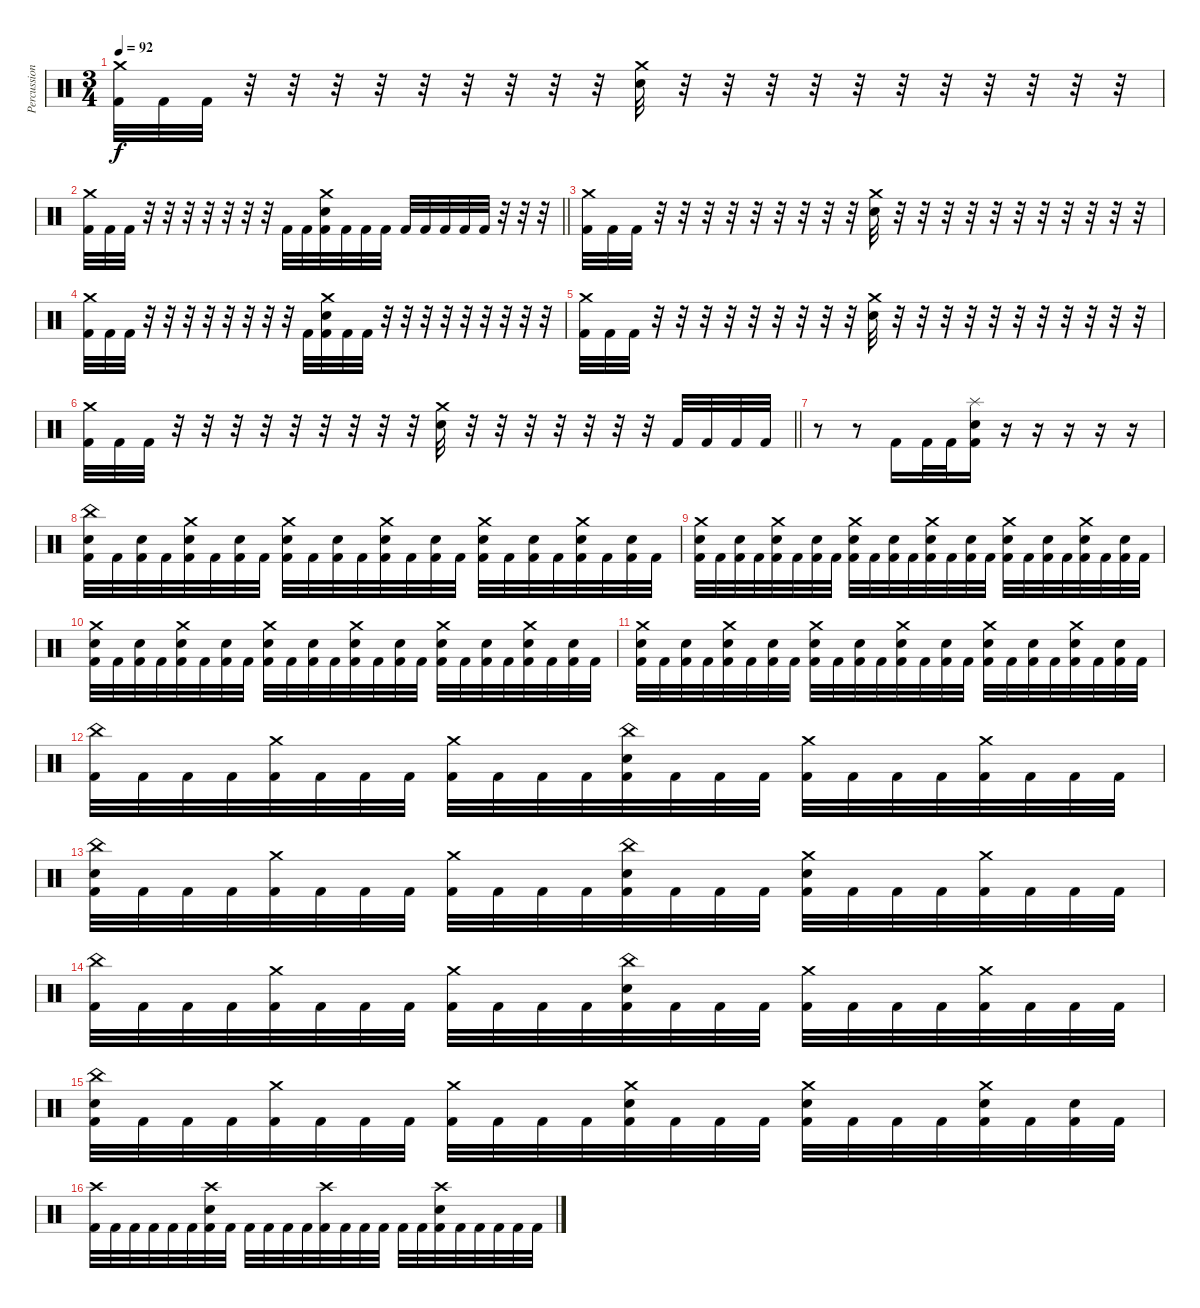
\track ("Percussion [Optional]" "Percussion") {instrument percussion}
\staff {score}
\articulation defaults
\ts (3 4)
\tempo 92
\clef neutral
\ks c
("Crash medium (hit)" "Kick (hit) 2").32{dy f} "Kick (hit) 2".32 "Kick (hit) 2".32 r.32 r.32 r.32 r.32 r.32 r.32 r.32 r.32 r.32 ("Crash medium (hit)" "Electric Snare (hit)").32 r.32 r.32 r.32 r.32 r.32 r.32 r.32 r.32 r.32 r.32 r.32 |
\barLineRight lightlight
("Crash medium (hit)" "Kick (hit) 2").32 "Kick (hit) 2".32 "Kick (hit) 2".32 r.32 r.32 r.32 r.32 r.32 r.32 r.32 "Kick (hit) 2".32 "Kick (hit) 2".32 ("Crash medium (hit)" "Electric Snare (hit)" "Kick (hit) 2").32 "Kick (hit) 2".32 "Kick (hit) 2".32 "Kick (hit) 2".32 "Kick (hit) 2".32 "Kick (hit) 2".32 "Kick (hit) 2".32 "Kick (hit) 2".32 "Kick (hit) 2".32 r.32 r.32 r.32 |
("Crash medium (hit)" "Kick (hit) 2").32 "Kick (hit) 2".32 "Kick (hit) 2".32 r.32 r.32 r.32 r.32 r.32 r.32 r.32 r.32 r.32 ("Crash medium (hit)" "Electric Snare (hit)").32 r.32 r.32 r.32 r.32 r.32 r.32 r.32 r.32 r.32 r.32 r.32 |
("Crash medium (hit)" "Kick (hit) 2").32 "Kick (hit) 2".32 "Kick (hit) 2".32 r.32 r.32 r.32 r.32 r.32 r.32 r.32 r.32 "Kick (hit) 2".32 ("Crash medium (hit)" "Electric Snare (hit)" "Kick (hit) 2").32 "Kick (hit) 2".32 "Kick (hit) 2".32 r.32 r.32 r.32 r.32 r.32 r.32 r.32 r.32 r.32 |
("Crash medium (hit)" "Kick (hit) 2").32 "Kick (hit) 2".32 "Kick (hit) 2".32 r.32 r.32 r.32 r.32 r.32 r.32 r.32 r.32 r.32 ("Crash medium (hit)" "Electric Snare (hit)").32 r.32 r.32 r.32 r.32 r.32 r.32 r.32 r.32 r.32 r.32 r.32 |
\barLineRight lightlight
("Crash medium (hit)" "Kick (hit) 2").32 "Kick (hit) 2".32 "Kick (hit) 2".32 r.32 r.32 r.32 r.32 r.32 r.32 r.32 r.32 r.32 ("Crash medium (hit)" "Electric Snare (hit)").32 r.32 r.32 r.32 r.32 r.32 r.32 r.32 "Kick (hit) 2".32 "Kick (hit) 2".32 "Kick (hit) 2".32 "Kick (hit) 2".32 |
r.8 r.8 "Kick (hit) 2".16 "Kick (hit) 2".32 "Kick (hit) 2".32 ("Electric Snare (hit)" "Kick (hit) 2" "Splash (hit)").16 r.16 r.16 r.16 r.16 r.16 |
("Kick (hit) 2" "China (hit)" "Electric Snare (hit)").32 "Kick (hit) 2".32 ("Kick (hit) 2" "Electric Snare (hit)").32 "Kick (hit) 2".32 ("Kick (hit) 2" "Crash medium (hit)" "Electric Snare (hit)").32 "Kick (hit) 2".32 ("Kick (hit) 2" "Electric Snare (hit)").32 "Kick (hit) 2".32 ("Kick (hit) 2" "Crash medium (hit)" "Electric Snare (hit)").32 "Kick (hit) 2".32 ("Kick (hit) 2" "Electric Snare (hit)").32 "Kick (hit) 2".32 ("Kick (hit) 2" "Crash medium (hit)" "Electric Snare (hit)").32 "Kick (hit) 2".32 ("Kick (hit) 2" "Electric Snare (hit)").32 "Kick (hit) 2".32 ("Kick (hit) 2" "Crash medium (hit)" "Electric Snare (hit)").32 "Kick (hit) 2".32 ("Kick (hit) 2" "Electric Snare (hit)").32 "Kick (hit) 2".32 ("Kick (hit) 2" "Crash medium (hit)" "Electric Snare (hit)").32 "Kick (hit) 2".32 ("Kick (hit) 2" "Electric Snare (hit)").32 "Kick (hit) 2".32 |
("Kick (hit) 2" "Crash medium (hit)" "Electric Snare (hit)").32 "Kick (hit) 2".32 ("Kick (hit) 2" "Electric Snare (hit)").32 "Kick (hit) 2".32 ("Kick (hit) 2" "Crash medium (hit)" "Electric Snare (hit)").32 "Kick (hit) 2".32 ("Kick (hit) 2" "Electric Snare (hit)").32 "Kick (hit) 2".32 ("Kick (hit) 2" "Crash medium (hit)" "Electric Snare (hit)").32 "Kick (hit) 2".32 ("Kick (hit) 2" "Electric Snare (hit)").32 "Kick (hit) 2".32 ("Kick (hit) 2" "Crash medium (hit)" "Electric Snare (hit)").32 "Kick (hit) 2".32 ("Kick (hit) 2" "Electric Snare (hit)").32 "Kick (hit) 2".32 ("Kick (hit) 2" "Crash medium (hit)" "Electric Snare (hit)").32 "Kick (hit) 2".32 ("Kick (hit) 2" "Electric Snare (hit)").32 "Kick (hit) 2".32 ("Kick (hit) 2" "Crash medium (hit)" "Electric Snare (hit)").32 "Kick (hit) 2".32 ("Kick (hit) 2" "Electric Snare (hit)").32 "Kick (hit) 2".32 |
("Kick (hit) 2" "Crash medium (hit)" "Electric Snare (hit)").32 "Kick (hit) 2".32 ("Kick (hit) 2" "Electric Snare (hit)").32 "Kick (hit) 2".32 ("Kick (hit) 2" "Crash medium (hit)" "Electric Snare (hit)").32 "Kick (hit) 2".32 ("Kick (hit) 2" "Electric Snare (hit)").32 "Kick (hit) 2".32 ("Kick (hit) 2" "Crash medium (hit)" "Electric Snare (hit)").32 "Kick (hit) 2".32 ("Kick (hit) 2" "Electric Snare (hit)").32 "Kick (hit) 2".32 ("Kick (hit) 2" "Crash medium (hit)" "Electric Snare (hit)").32 "Kick (hit) 2".32 ("Kick (hit) 2" "Electric Snare (hit)").32 "Kick (hit) 2".32 ("Kick (hit) 2" "Crash medium (hit)" "Electric Snare (hit)").32 "Kick (hit) 2".32 ("Kick (hit) 2" "Electric Snare (hit)").32 "Kick (hit) 2".32 ("Kick (hit) 2" "Crash medium (hit)" "Electric Snare (hit)").32 "Kick (hit) 2".32 ("Kick (hit) 2" "Electric Snare (hit)").32 "Kick (hit) 2".32 |
("Kick (hit) 2" "Crash medium (hit)" "Electric Snare (hit)").32 "Kick (hit) 2".32 ("Kick (hit) 2" "Electric Snare (hit)").32 "Kick (hit) 2".32 ("Kick (hit) 2" "Crash medium (hit)" "Electric Snare (hit)").32 "Kick (hit) 2".32 ("Kick (hit) 2" "Electric Snare (hit)").32 "Kick (hit) 2".32 ("Kick (hit) 2" "Crash medium (hit)" "Electric Snare (hit)").32 "Kick (hit) 2".32 ("Kick (hit) 2" "Electric Snare (hit)").32 "Kick (hit) 2".32 ("Kick (hit) 2" "Crash medium (hit)" "Electric Snare (hit)").32 "Kick (hit) 2".32 ("Kick (hit) 2" "Electric Snare (hit)").32 "Kick (hit) 2".32 ("Kick (hit) 2" "Crash medium (hit)" "Electric Snare (hit)").32 "Kick (hit) 2".32 ("Kick (hit) 2" "Electric Snare (hit)").32 "Kick (hit) 2".32 ("Kick (hit) 2" "Crash medium (hit)" "Electric Snare (hit)").32 "Kick (hit) 2".32 ("Kick (hit) 2" "Electric Snare (hit)").32 "Kick (hit) 2".32 |
("Kick (hit) 2" "China (hit)").32 "Kick (hit) 2".32 "Kick (hit) 2".32 "Kick (hit) 2".32 ("Kick (hit) 2" "Crash medium (hit)").32 "Kick (hit) 2".32 "Kick (hit) 2".32 "Kick (hit) 2".32 ("Kick (hit) 2" "Crash medium (hit)").32 "Kick (hit) 2".32 "Kick (hit) 2".32 "Kick (hit) 2".32 ("Kick (hit) 2" "China (hit)" "Electric Snare (hit)").32 "Kick (hit) 2".32 "Kick (hit) 2".32 "Kick (hit) 2".32 ("Kick (hit) 2" "Crash medium (hit)").32 "Kick (hit) 2".32 "Kick (hit) 2".32 "Kick (hit) 2".32 ("Kick (hit) 2" "Crash medium (hit)").32 "Kick (hit) 2".32 "Kick (hit) 2".32 "Kick (hit) 2".32 |
("Kick (hit) 2" "China (hit)" "Electric Snare (hit)").32 "Kick (hit) 2".32 "Kick (hit) 2".32 "Kick (hit) 2".32 ("Kick (hit) 2" "Crash medium (hit)").32 "Kick (hit) 2".32 "Kick (hit) 2".32 "Kick (hit) 2".32 ("Kick (hit) 2" "Crash medium (hit)").32 "Kick (hit) 2".32 "Kick (hit) 2".32 "Kick (hit) 2".32 ("Kick (hit) 2" "China (hit)" "Electric Snare (hit)").32 "Kick (hit) 2".32 "Kick (hit) 2".32 "Kick (hit) 2".32 ("Kick (hit) 2" "Crash medium (hit)" "Electric Snare (hit)").32 "Kick (hit) 2".32 "Kick (hit) 2".32 "Kick (hit) 2".32 ("Kick (hit) 2" "Crash medium (hit)").32 "Kick (hit) 2".32 "Kick (hit) 2".32 "Kick (hit) 2".32 |
("Kick (hit) 2" "China (hit)").32 "Kick (hit) 2".32 "Kick (hit) 2".32 "Kick (hit) 2".32 ("Kick (hit) 2" "Crash medium (hit)").32 "Kick (hit) 2".32 "Kick (hit) 2".32 "Kick (hit) 2".32 ("Kick (hit) 2" "Crash medium (hit)").32 "Kick (hit) 2".32 "Kick (hit) 2".32 "Kick (hit) 2".32 ("Kick (hit) 2" "China (hit)" "Electric Snare (hit)").32 "Kick (hit) 2".32 "Kick (hit) 2".32 "Kick (hit) 2".32 ("Kick (hit) 2" "Crash medium (hit)").32 "Kick (hit) 2".32 "Kick (hit) 2".32 "Kick (hit) 2".32 ("Kick (hit) 2" "Crash medium (hit)").32 "Kick (hit) 2".32 "Kick (hit) 2".32 "Kick (hit) 2".32 |
("Kick (hit) 2" "China (hit)" "Electric Snare (hit)").32 "Kick (hit) 2".32 "Kick (hit) 2".32 "Kick (hit) 2".32 ("Kick (hit) 2" "Crash medium (hit)").32 "Kick (hit) 2".32 "Kick (hit) 2".32 "Kick (hit) 2".32 ("Kick (hit) 2" "Crash medium (hit)").32 "Kick (hit) 2".32 "Kick (hit) 2".32 "Kick (hit) 2".32 ("Kick (hit) 2" "Crash medium (hit)" "Electric Snare (hit)").32 "Kick (hit) 2".32 "Kick (hit) 2".32 "Kick (hit) 2".32 ("Kick (hit) 2" "Crash medium (hit)" "Electric Snare (hit)").32 "Kick (hit) 2".32 "Kick (hit) 2".32 "Kick (hit) 2".32 ("Kick (hit) 2" "Crash medium (hit)" "Electric Snare (hit)").32 "Kick (hit) 2".32 ("Kick (hit) 2" "Electric Snare (hit)").32 "Kick (hit) 2".32 |
("Kick (hit) 2" "Crash high (hit)").32 "Kick (hit) 2".32 "Kick (hit) 2".32 "Kick (hit) 2".32 "Kick (hit) 2".32 "Kick (hit) 2".32 ("Kick (hit) 2" "Crash high (hit)" "Electric Snare (hit)").32 "Kick (hit) 2".32 "Kick (hit) 2".32 "Kick (hit) 2".32 "Kick (hit) 2".32 "Kick (hit) 2".32 ("Kick (hit) 2" "Crash high (hit)").32 "Kick (hit) 2".32 "Kick (hit) 2".32 "Kick (hit) 2".32 "Kick (hit) 2".32 "Kick (hit) 2".32 ("Kick (hit) 2" "Electric Snare (hit)" "Crash high (hit)").32 "Kick (hit) 2".32 "Kick (hit) 2".32 "Kick (hit) 2".32 "Kick (hit) 2".32 "Kick (hit) 2".32
